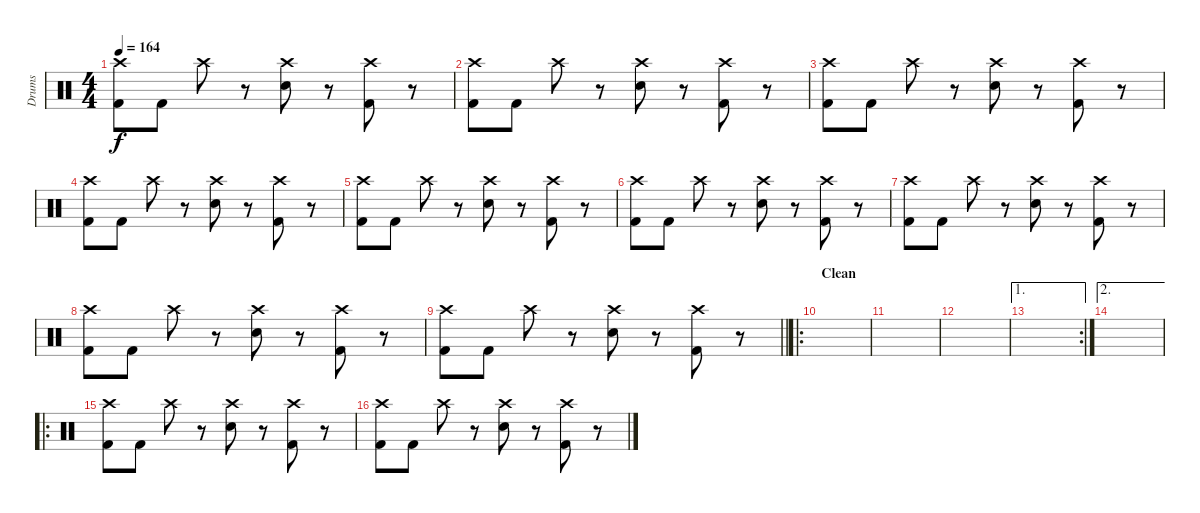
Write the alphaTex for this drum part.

\track ("Drums" "Drums") {instrument percussion}
\staff {score}
\articulation defaults
\ts (4 4)
\tempo 164
\clef neutral
\ks c
("Crash high (hit)" "Kick (hit) 2").8{dy f} "Kick (hit) 2".8 "Crash high (hit)".8 r.8 ("Crash high (hit)" "Electric Snare (hit)").8 r.8 ("Crash high (hit)" "Kick (hit) 2").8 r.8 |
("Crash high (hit)" "Kick (hit) 2").8 "Kick (hit) 2".8 "Crash high (hit)".8 r.8 ("Crash high (hit)" "Electric Snare (hit)").8 r.8 ("Crash high (hit)" "Kick (hit) 2").8 r.8 |
("Crash high (hit)" "Kick (hit) 2").8 "Kick (hit) 2".8 "Crash high (hit)".8 r.8 ("Crash high (hit)" "Electric Snare (hit)").8 r.8 ("Crash high (hit)" "Kick (hit) 2").8 r.8 |
("Crash high (hit)" "Kick (hit) 2").8 "Kick (hit) 2".8 "Crash high (hit)".8 r.8 ("Crash high (hit)" "Electric Snare (hit)").8 r.8 ("Crash high (hit)" "Kick (hit) 2").8 r.8 |
("Crash high (hit)" "Kick (hit) 2").8 "Kick (hit) 2".8 "Crash high (hit)".8 r.8 ("Crash high (hit)" "Electric Snare (hit)").8 r.8 ("Crash high (hit)" "Kick (hit) 2").8 r.8 |
("Crash high (hit)" "Kick (hit) 2").8 "Kick (hit) 2".8 "Crash high (hit)".8 r.8 ("Crash high (hit)" "Electric Snare (hit)").8 r.8 ("Crash high (hit)" "Kick (hit) 2").8 r.8 |
("Crash high (hit)" "Kick (hit) 2").8 "Kick (hit) 2".8 "Crash high (hit)".8 r.8 ("Crash high (hit)" "Electric Snare (hit)").8 r.8 ("Crash high (hit)" "Kick (hit) 2").8 r.8 |
("Crash high (hit)" "Kick (hit) 2").8 "Kick (hit) 2".8 "Crash high (hit)".8 r.8 ("Crash high (hit)" "Electric Snare (hit)").8 r.8 ("Crash high (hit)" "Kick (hit) 2").8 r.8 |
\barLineRight lightlight
("Crash high (hit)" "Kick (hit) 2").8 "Kick (hit) 2".8 "Crash high (hit)".8 r.8 ("Crash high (hit)" "Electric Snare (hit)").8 r.8 ("Crash high (hit)" "Kick (hit) 2").8 r.8 |
\ro
\section ("" "Clean")
|
|
|
\ae 1
\rc 2
|
\ae 2
|
\ro
("Crash high (hit)" "Kick (hit) 2").8 "Kick (hit) 2".8 "Crash high (hit)".8 r.8 ("Crash high (hit)" "Electric Snare (hit)").8 r.8 ("Crash high (hit)" "Kick (hit) 2").8 r.8 |
("Crash high (hit)" "Kick (hit) 2").8 "Kick (hit) 2".8 "Crash high (hit)".8 r.8 ("Crash high (hit)" "Electric Snare (hit)").8 r.8 ("Crash high (hit)" "Kick (hit) 2").8 r.8
